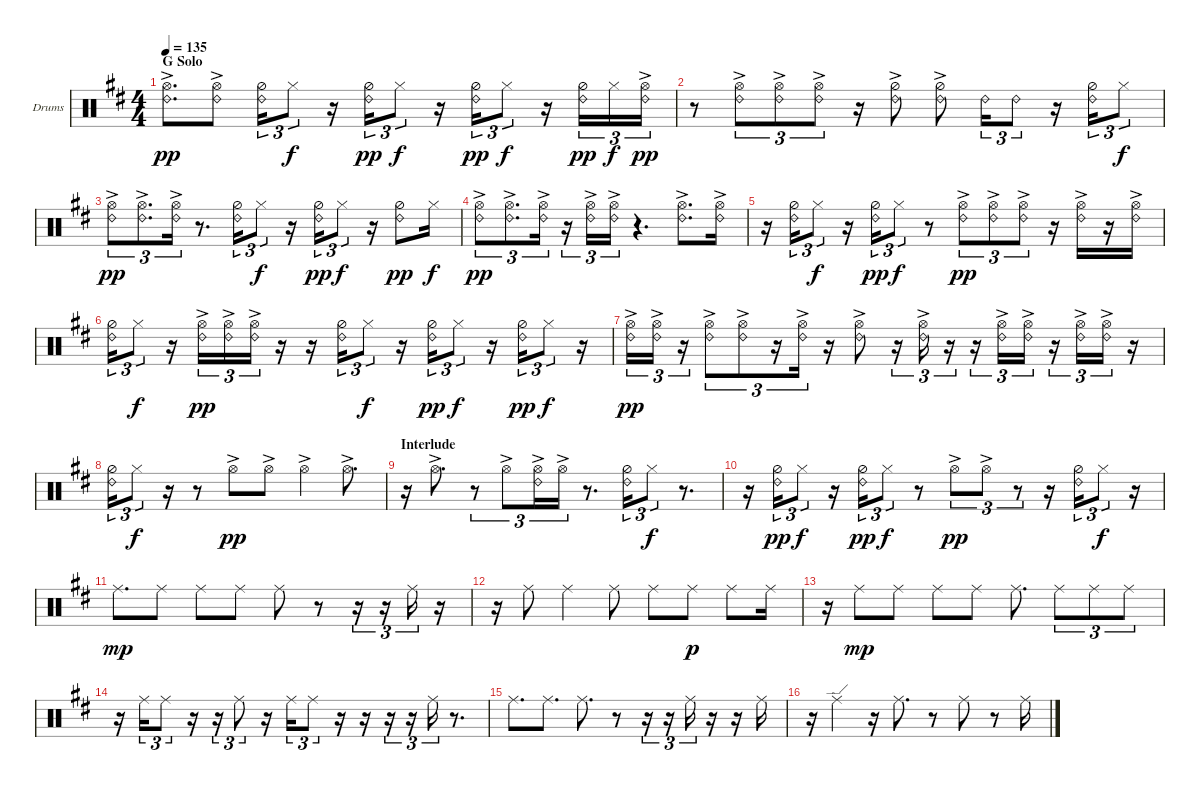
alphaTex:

\bracketExtendMode groupsimilarinstruments
\firstSystemTrackNameOrientation horizontal
\otherSystemsTrackNameOrientation horizontal
\track ("OH" "Drums") {instrument percussion}
\staff {score}
\articulation defaults
\ts (4 4)
\section ("" "G Solo")
\tempo 135
\clef neutral
\ks d
("Ride (bell) 2" "Hi-Hat (open)"{ac}).8{d dy pp} ("Ride (bell) 2" "Hi-Hat (open)"{ac}).8 ("Ride (bell) 2" "Hi-Hat (half)").16{tu (3 2)} "Hi-Hat (closed)".8{tu (3 2) dy f} r.16 ("Ride (bell) 2" "Hi-Hat (half)").16{tu (3 2) dy pp} "Hi-Hat (closed)".8{tu (3 2) dy f} r.16 ("Ride (bell) 2" "Hi-Hat (half)").16{tu (3 2) dy pp} "Hi-Hat (closed)".8{tu (3 2) dy f} r.16 ("Ride (bell) 2" "Hi-Hat (half)").16{tu (3 2) dy pp} "Hi-Hat (closed)".16{tu (3 2) dy f} ("Ride (bell) 2" "Hi-Hat (open)"{ac}).16{tu (3 2) dy pp} |
r.8 ("Ride (bell) 2" "Hi-Hat (open)"{ac}).8{tu (3 2)} ("Ride (bell) 2" "Hi-Hat (open)"{ac}).8{tu (3 2)} ("Ride (bell) 2" "Hi-Hat (open)"{ac}).8{tu (3 2)} r.16 ("Ride (bell) 2" "Hi-Hat (half)"{ac}).8 ("Ride (bell) 2" "Hi-Hat (half)"{ac}).8 "Ride (bell) 2".16{tu (3 2)} "Ride (bell) 2".8{tu (3 2)} r.16 ("Ride (bell) 2" "Hi-Hat (half)").16{tu (3 2)} "Hi-Hat (closed)".8{tu (3 2) dy f} |
("Ride (bell) 2" "Hi-Hat (open)"{ac}).8{tu (3 2) dy pp} ("Ride (bell) 2" "Hi-Hat (open)"{ac}).8{d tu (3 2)} ("Ride (bell) 2" "Hi-Hat (open)"{ac}).16{tu (3 2)} r.8{d} ("Ride (bell) 2" "Hi-Hat (half)").16{tu (3 2)} "Hi-Hat (closed)".8{tu (3 2) dy f} r.16 ("Ride (bell) 2" "Hi-Hat (half)").16{tu (3 2) dy pp} "Hi-Hat (closed)".8{tu (3 2) dy f} r.16 ("Ride (bell) 2" "Hi-Hat (half)").8{dy pp} "Hi-Hat (closed)".16{dy f} |
\scale
0.60786 ("Ride (bell) 2" "Hi-Hat (open)"{ac}).8{tu (3 2) dy pp} ("Ride (bell) 2" "Hi-Hat (open)"{ac}).8{d tu (3 2)} ("Ride (bell) 2" "Hi-Hat (open)"{ac}).16{tu (3 2)} r.16{tu (3 2)} ("Ride (bell) 2" "Hi-Hat (open)"{ac}).16{tu (3 2)} ("Ride (bell) 2" "Hi-Hat (open)"{ac}).16{tu (3 2)} r.4{d} ("Ride (bell) 2" "Hi-Hat (open)"{ac}).8{d} ("Ride (bell) 2" "Hi-Hat (open)"{ac}).16 |
\scale
0.391858 r.16 ("Ride (bell) 2" "Hi-Hat (half)").16{tu (3 2)} "Hi-Hat (closed)".8{tu (3 2) dy f} r.16 ("Ride (bell) 2" "Hi-Hat (half)").16{tu (3 2) dy pp} "Hi-Hat (closed)".8{tu (3 2) dy f} r.8 ("Ride (bell) 2" "Hi-Hat (open)"{ac}).8{tu (3 2) dy pp} ("Ride (bell) 2" "Hi-Hat (open)"{ac}).8{tu (3 2)} ("Ride (bell) 2" "Hi-Hat (open)"{ac}).8{tu (3 2)} r.16 ("Ride (bell) 2" "Hi-Hat (open)"{ac}).16 r.16 ("Ride (bell) 2" "Hi-Hat (open)"{ac}).16 |
("Ride (bell) 2" "Hi-Hat (half)").16{tu (3 2)} "Hi-Hat (closed)".8{tu (3 2) dy f} r.16 ("Ride (bell) 2" "Hi-Hat (open)"{ac}).16{tu (3 2) dy pp} ("Ride (bell) 2" "Hi-Hat (open)"{ac}).16{tu (3 2)} ("Ride (bell) 2" "Hi-Hat (open)"{ac}).16{tu (3 2)} r.16 r.16 ("Ride (bell) 2" "Hi-Hat (half)").16{tu (3 2)} "Hi-Hat (closed)".8{tu (3 2) dy f} r.16 ("Ride (bell) 2" "Hi-Hat (half)").16{tu (3 2) dy pp} "Hi-Hat (closed)".8{tu (3 2) dy f} r.16 ("Ride (bell) 2" "Hi-Hat (half)").16{tu (3 2) dy pp} "Hi-Hat (closed)".8{tu (3 2) dy f} r.16 |
("Ride (bell) 2" "Hi-Hat (open)"{ac}).16{tu (3 2) dy pp} ("Ride (bell) 2" "Hi-Hat (open)"{ac}).16{tu (3 2)} r.16{tu (3 2)} ("Ride (bell) 2" "Hi-Hat (open)"{ac}).8{tu (3 2)} ("Ride (bell) 2" "Hi-Hat (open)"{ac}).8{tu (3 2)} r.16{tu (3 2)} ("Ride (bell) 2" "Hi-Hat (open)"{ac}).16{tu (3 2)} r.16 ("Ride (bell) 2" "Hi-Hat (open)"{ac}).8 r.16{tu (3 2)} ("Ride (bell) 2" "Hi-Hat (open)"{ac}).16{tu (3 2)} r.16{tu (3 2)} r.16{tu (3 2)} ("Ride (bell) 2" "Hi-Hat (open)"{ac}).16{tu (3 2)} ("Ride (bell) 2" "Hi-Hat (open)"{ac}).16{tu (3 2)} r.16{tu (3 2)} ("Ride (bell) 2" "Hi-Hat (open)"{ac}).16{tu (3 2)} ("Ride (bell) 2" "Hi-Hat (open)"{ac}).16{tu (3 2)} r.16 |
("Ride (bell) 2" "Hi-Hat (half)").16{tu (3 2)} "Hi-Hat (closed)".8{tu (3 2) dy f} r.16 r.8 "Hi-Hat (open)"{ac}.8{dy pp} "Hi-Hat (open)"{ac}.8 "Hi-Hat (open)"{ac}.4 "Hi-Hat (open)"{ac}.8{d} |
\section ("" "Interlude")
r.16 "Hi-Hat (open)"{ac}.8{d} r.8{tu (3 2)} "Hi-Hat (open)"{ac}.8{tu (3 2)} ("Ride (bell) 2" "Hi-Hat (open)"{ac}).16{tu (3 2)} "Hi-Hat (open)"{ac}.16{tu (3 2)} r.8{d} ("Ride (bell) 2" "Hi-Hat (half)").16{tu (3 2)} "Hi-Hat (closed)".8{tu (3 2) dy f} r.8{d} |
\scale
0.539705 r.16 ("Ride (bell) 2" "Hi-Hat (half)").16{tu (3 2) dy pp} "Hi-Hat (closed)".8{tu (3 2) dy f} r.16 ("Ride (bell) 2" "Hi-Hat (half)").16{tu (3 2) dy pp} "Hi-Hat (closed)".8{tu (3 2) dy f} r.8 "Hi-Hat (open)"{ac}.8{tu (3 2) dy pp} "Hi-Hat (open)"{ac}.8{tu (3 2)} r.8{tu (3 2)} r.16 ("Ride (bell) 2" "Hi-Hat (half)").16{tu (3 2)} "Hi-Hat (closed)".8{tu (3 2) dy f} r.16 |
\scale
0.458656 "Ride (middle)".8{d dy mp} "Ride (middle)".8 "Ride (middle)".8 "Ride (middle)".8 "Ride (middle)".8 r.8 r.16{tu (3 2)} r.16{tu (3 2)} "Ride (middle)".16{tu (3 2)} r.16 |
r.16 "Ride (middle)".8 "Ride (middle)".4 "Ride (middle)".8 "Ride (middle)".8 "Ride (middle)".8{dy p} "Ride (middle)".8 "Ride (middle)".16 |
r.16 "Ride (middle)".8{dy mp} "Ride (middle)".8 "Ride (middle)".8 "Ride (middle)".8 "Ride (middle)".8{d} "Ride (middle)".8{tu (3 2)} "Ride (middle)".8{tu (3 2)} "Ride (middle)".8{tu (3 2)} |
r.16 "Ride (middle)".16{tu (3 2)} "Ride (middle)".8{tu (3 2)} r.16 r.16{tu (3 2)} "Ride (middle)".8{tu (3 2)} r.16 "Ride (middle)".16{tu (3 2)} "Ride (middle)".8{tu (3 2)} r.16 r.16 r.16{tu (3 2)} r.16{tu (3 2)} "Ride (middle)".16{tu (3 2)} r.8{d} |
"Ride (middle)".8{d} "Ride (middle)".8{d} "Ride (middle)".8{d} r.8 r.16{tu (3 2)} r.16{tu (3 2)} "Ride (middle)".16{tu (3 2)} r.16 r.16 "Ride (middle)".16 |
r.16 "Ride (edge)".4 r.16 "Ride (middle)".8{d} r.8 "Ride (middle)".8 r.8 "Ride (middle)".16
